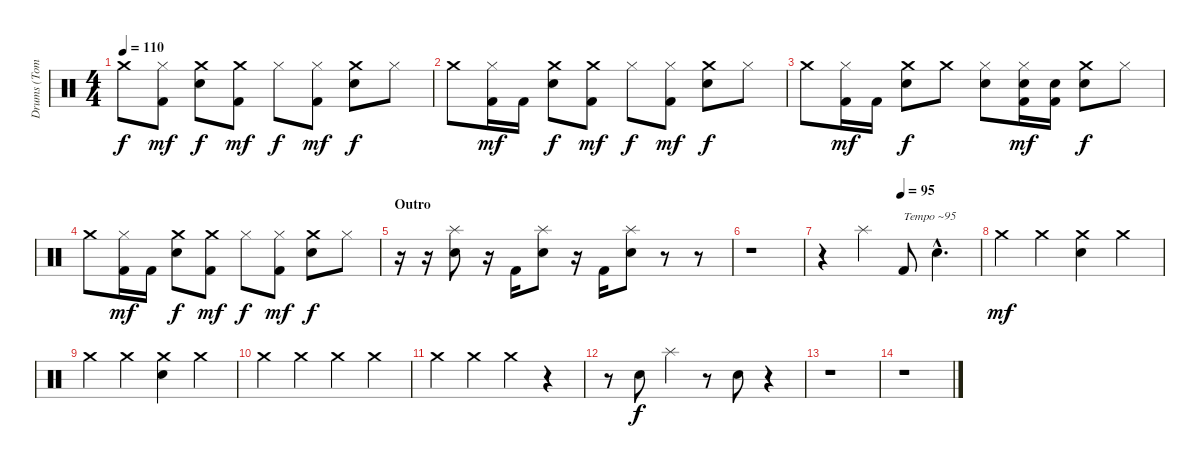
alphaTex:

\track ("Drums (Tomate)" "Drums (Tom") {instrument percussion}
\staff {score}
\articulation defaults
\ts (4 4)
\tempo 110
\clef neutral
\ks c "Crash medium (hit)".8{dy f}
("Hi-Hat (closed)" "Kick (hit) 2").8{dy mf} ("Crash medium (hit)" "Electric Snare (hit)").8{dy f} ("Crash medium (hit)" "Kick (hit) 2").8{dy mf} "Hi-Hat (closed)".8{dy f} ("Hi-Hat (closed)" "Kick (hit) 2").8{dy mf} ("Crash medium (hit)" "Electric Snare (hit)").8{dy f} "Hi-Hat (closed)".8 |
"Crash medium (hit)".8 ("Hi-Hat (closed)" "Kick (hit) 2").16{dy mf} "Kick (hit) 2".16 ("Crash medium (hit)" "Electric Snare (hit)").8{dy f} ("Crash medium (hit)" "Kick (hit) 2").8{dy mf} "Hi-Hat (closed)".8{dy f} ("Hi-Hat (closed)" "Kick (hit) 2").8{dy mf} ("Crash medium (hit)" "Electric Snare (hit)").8{dy f} "Hi-Hat (closed)".8 |
"Crash medium (hit)".8 ("Hi-Hat (closed)" "Kick (hit) 2").16{dy mf} "Kick (hit) 2".16 ("Crash medium (hit)" "Electric Snare (hit)").8{dy f} "Crash medium (hit)".8 ("Hi-Hat (closed)" "Electric Snare (hit)").8 ("Hi-Hat (closed)" "Electric Snare (hit)" "Kick (hit) 2").16{dy mf} ("Electric Snare (hit)" "Kick (hit) 2").16 ("Crash medium (hit)" "Electric Snare (hit)").8{dy f} "Hi-Hat (closed)".8 |
"Crash medium (hit)".8 ("Hi-Hat (closed)" "Kick (hit) 2").16{dy mf} "Kick (hit) 2".16 ("Crash medium (hit)" "Electric Snare (hit)").8{dy f} ("Crash medium (hit)" "Kick (hit) 2").8{dy mf} "Hi-Hat (closed)".8{dy f} ("Hi-Hat (closed)" "Kick (hit) 2").8{dy mf} ("Crash medium (hit)" "Electric Snare (hit)").8{dy f} "Hi-Hat (closed)".8 |
\section ("" "Outro")
r.16 r.16 ("Splash (hit)" "Electric Snare (hit)").8 r.16 "Kick (hit) 2".16 ("Splash (hit)" "Electric Snare (hit)").8 r.16 "Kick (hit) 2".16 ("Splash (hit)" "Electric Snare (hit)").8 r.8 r.8 |
r.1 |
\tempo (95 0.5)
r.4 "Splash (hit)".4 "Kick (hit) 2".8{txt "Tempo ~95"} "Electric Snare (hit)"{hac}.4{d} |
"Crash medium (hit)".4{dy mf} "Crash medium (hit)".4 ("Crash medium (hit)" "Electric Snare (hit)").4 "Crash medium (hit)".4 |
"Crash medium (hit)".4 "Crash medium (hit)".4 ("Crash medium (hit)" "Electric Snare (hit)").4 "Crash medium (hit)".4 |
"Crash medium (hit)".4 "Crash medium (hit)".4 "Crash medium (hit)".4 "Crash medium (hit)".4 |
"Crash medium (hit)".4 "Crash medium (hit)".4 "Crash medium (hit)".4 r.4 |
r.8 "Electric Snare (hit)".8{dy f} "Splash (hit)".4 r.8 "Electric Snare (hit)".8 r.4 |
r.1 |
r.1
